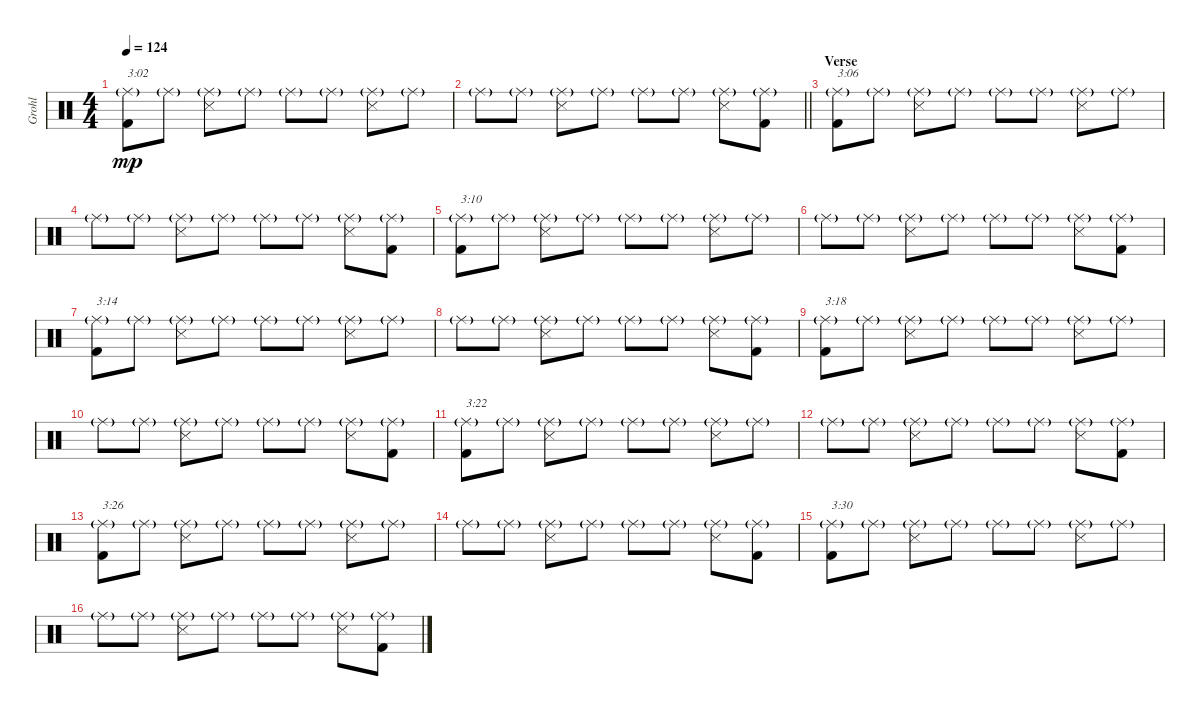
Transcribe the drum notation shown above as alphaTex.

\track ("Grohl" "Grohl") {instrument percussion}
\staff {score}
\articulation defaults
\ts (4 4)
\tempo 124
\clef neutral
\ks c
("Ride (middle)"{g} "Kick (hit) 2").8{txt "3:02" dy mp} "Ride (middle)"{g}.8 ("Ride (middle)"{g} "Snare (side stick) 3").8 "Ride (middle)"{g}.8 "Ride (middle)"{g}.8 "Ride (middle)"{g}.8 ("Ride (middle)"{g} "Snare (side stick) 3").8 "Ride (middle)"{g}.8 |
\barLineRight lightlight "Ride (middle)"{g}.8 "Ride (middle)"{g}.8
("Ride (middle)"{g} "Snare (side stick) 3").8 "Ride (middle)"{g}.8 "Ride (middle)"{g}.8 "Ride (middle)"{g}.8 ("Ride (middle)"{g} "Snare (side stick) 3").8 ("Ride (middle)"{g} "Kick (hit) 2").8 |
\section ("" "Verse")
("Ride (middle)"{g} "Kick (hit) 2").8{txt "3:06"} "Ride (middle)"{g}.8 ("Ride (middle)"{g} "Snare (side stick) 3").8 "Ride (middle)"{g}.8 "Ride (middle)"{g}.8 "Ride (middle)"{g}.8 ("Ride (middle)"{g} "Snare (side stick) 3").8 "Ride (middle)"{g}.8 |
"Ride (middle)"{g}.8 "Ride (middle)"{g}.8 ("Ride (middle)"{g} "Snare (side stick) 3").8 "Ride (middle)"{g}.8 "Ride (middle)"{g}.8 "Ride (middle)"{g}.8 ("Ride (middle)"{g} "Snare (side stick) 3").8 ("Ride (middle)"{g} "Kick (hit) 2").8 |
("Ride (middle)"{g} "Kick (hit) 2").8{txt "3:10"} "Ride (middle)"{g}.8 ("Ride (middle)"{g} "Snare (side stick) 3").8 "Ride (middle)"{g}.8 "Ride (middle)"{g}.8 "Ride (middle)"{g}.8 ("Ride (middle)"{g} "Snare (side stick) 3").8 "Ride (middle)"{g}.8 |
"Ride (middle)"{g}.8 "Ride (middle)"{g}.8 ("Ride (middle)"{g} "Snare (side stick) 3").8 "Ride (middle)"{g}.8 "Ride (middle)"{g}.8 "Ride (middle)"{g}.8 ("Ride (middle)"{g} "Snare (side stick) 3").8 ("Ride (middle)"{g} "Kick (hit) 2").8 |
("Ride (middle)"{g} "Kick (hit) 2").8{txt "3:14"} "Ride (middle)"{g}.8 ("Ride (middle)"{g} "Snare (side stick) 3").8 "Ride (middle)"{g}.8 "Ride (middle)"{g}.8 "Ride (middle)"{g}.8 ("Ride (middle)"{g} "Snare (side stick) 3").8 "Ride (middle)"{g}.8 |
"Ride (middle)"{g}.8 "Ride (middle)"{g}.8 ("Ride (middle)"{g} "Snare (side stick) 3").8 "Ride (middle)"{g}.8 "Ride (middle)"{g}.8 "Ride (middle)"{g}.8 ("Ride (middle)"{g} "Snare (side stick) 3").8 ("Ride (middle)"{g} "Kick (hit) 2").8 |
("Ride (middle)"{g} "Kick (hit) 2").8{txt "3:18"} "Ride (middle)"{g}.8 ("Ride (middle)"{g} "Snare (side stick) 3").8 "Ride (middle)"{g}.8 "Ride (middle)"{g}.8 "Ride (middle)"{g}.8 ("Ride (middle)"{g} "Snare (side stick) 3").8 "Ride (middle)"{g}.8 |
"Ride (middle)"{g}.8 "Ride (middle)"{g}.8 ("Ride (middle)"{g} "Snare (side stick) 3").8 "Ride (middle)"{g}.8 "Ride (middle)"{g}.8 "Ride (middle)"{g}.8 ("Ride (middle)"{g} "Snare (side stick) 3").8 ("Ride (middle)"{g} "Kick (hit) 2").8 |
("Ride (middle)"{g} "Kick (hit) 2").8{txt "3:22"} "Ride (middle)"{g}.8 ("Ride (middle)"{g} "Snare (side stick) 3").8 "Ride (middle)"{g}.8 "Ride (middle)"{g}.8 "Ride (middle)"{g}.8 ("Ride (middle)"{g} "Snare (side stick) 3").8 "Ride (middle)"{g}.8 |
"Ride (middle)"{g}.8 "Ride (middle)"{g}.8 ("Ride (middle)"{g} "Snare (side stick) 3").8 "Ride (middle)"{g}.8 "Ride (middle)"{g}.8 "Ride (middle)"{g}.8 ("Ride (middle)"{g} "Snare (side stick) 3").8 ("Ride (middle)"{g} "Kick (hit) 2").8 |
("Ride (middle)"{g} "Kick (hit) 2").8{txt "3:26"} "Ride (middle)"{g}.8 ("Ride (middle)"{g} "Snare (side stick) 3").8 "Ride (middle)"{g}.8 "Ride (middle)"{g}.8 "Ride (middle)"{g}.8 ("Ride (middle)"{g} "Snare (side stick) 3").8 "Ride (middle)"{g}.8 |
"Ride (middle)"{g}.8 "Ride (middle)"{g}.8 ("Ride (middle)"{g} "Snare (side stick) 3").8 "Ride (middle)"{g}.8 "Ride (middle)"{g}.8 "Ride (middle)"{g}.8 ("Ride (middle)"{g} "Snare (side stick) 3").8 ("Ride (middle)"{g} "Kick (hit) 2").8 |
("Ride (middle)"{g} "Kick (hit) 2").8{txt "3:30"} "Ride (middle)"{g}.8 ("Ride (middle)"{g} "Snare (side stick) 3").8 "Ride (middle)"{g}.8 "Ride (middle)"{g}.8 "Ride (middle)"{g}.8 ("Ride (middle)"{g} "Snare (side stick) 3").8 "Ride (middle)"{g}.8 |
"Ride (middle)"{g}.8 "Ride (middle)"{g}.8 ("Ride (middle)"{g} "Snare (side stick) 3").8 "Ride (middle)"{g}.8 "Ride (middle)"{g}.8 "Ride (middle)"{g}.8 ("Ride (middle)"{g} "Snare (side stick) 3").8 ("Ride (middle)"{g} "Kick (hit) 2").8
